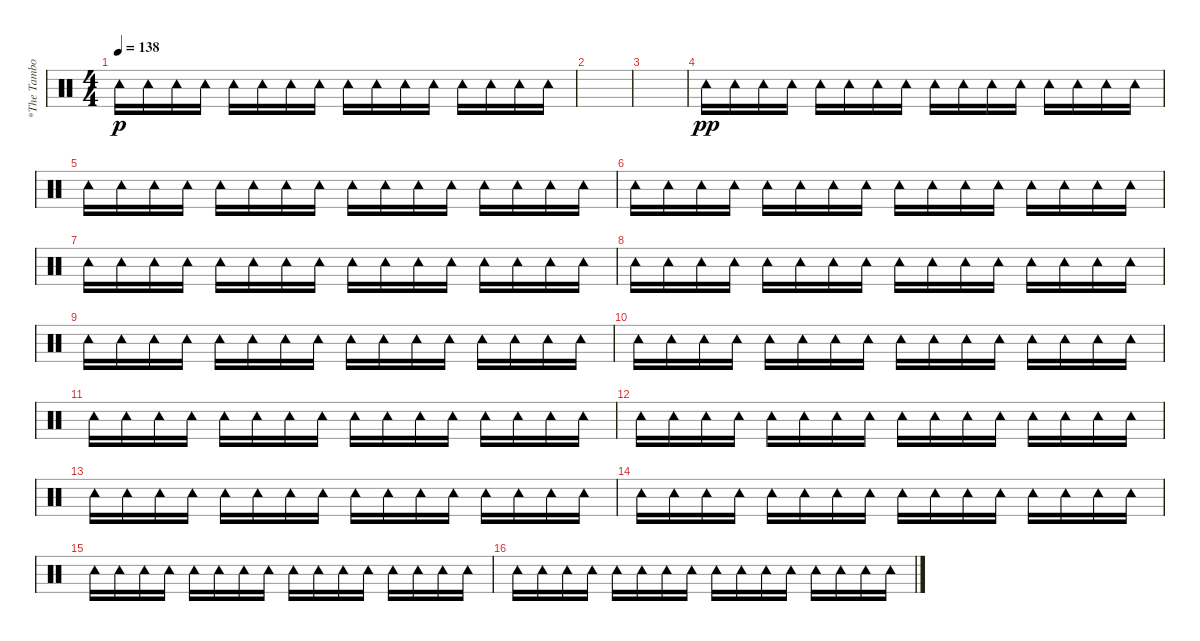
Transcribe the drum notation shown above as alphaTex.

\track ("*The Tambourine" "*The Tambo") {instrument percussion}
\staff {score}
\articulation defaults
\ts (4 4)
\tempo 138
\clef neutral
\ks c "Tambourine (hit)".16{dy p} "Tambourine (hit)".16 "Tambourine (hit)".16 "Tambourine (hit)".16 "Tambourine (hit)".16 "Tambourine (hit)".16 "Tambourine (hit)".16 "Tambourine (hit)".16 "Tambourine (hit)".16 "Tambourine (hit)".16 "Tambourine (hit)".16 "Tambourine (hit)".16 "Tambourine (hit)".16 "Tambourine (hit)".16 "Tambourine (hit)".16 "Tambourine (hit)".16
|
|
|
"Tambourine (hit)".16{dy pp} "Tambourine (hit)".16 "Tambourine (hit)".16 "Tambourine (hit)".16 "Tambourine (hit)".16 "Tambourine (hit)".16 "Tambourine (hit)".16 "Tambourine (hit)".16 "Tambourine (hit)".16 "Tambourine (hit)".16 "Tambourine (hit)".16 "Tambourine (hit)".16 "Tambourine (hit)".16 "Tambourine (hit)".16 "Tambourine (hit)".16 "Tambourine (hit)".16 |
"Tambourine (hit)".16 "Tambourine (hit)".16 "Tambourine (hit)".16 "Tambourine (hit)".16 "Tambourine (hit)".16 "Tambourine (hit)".16 "Tambourine (hit)".16 "Tambourine (hit)".16 "Tambourine (hit)".16 "Tambourine (hit)".16 "Tambourine (hit)".16 "Tambourine (hit)".16 "Tambourine (hit)".16 "Tambourine (hit)".16 "Tambourine (hit)".16 "Tambourine (hit)".16 |
"Tambourine (hit)".16 "Tambourine (hit)".16 "Tambourine (hit)".16 "Tambourine (hit)".16 "Tambourine (hit)".16 "Tambourine (hit)".16 "Tambourine (hit)".16 "Tambourine (hit)".16 "Tambourine (hit)".16 "Tambourine (hit)".16 "Tambourine (hit)".16 "Tambourine (hit)".16 "Tambourine (hit)".16 "Tambourine (hit)".16 "Tambourine (hit)".16 "Tambourine (hit)".16 |
"Tambourine (hit)".16 "Tambourine (hit)".16 "Tambourine (hit)".16 "Tambourine (hit)".16 "Tambourine (hit)".16 "Tambourine (hit)".16 "Tambourine (hit)".16 "Tambourine (hit)".16 "Tambourine (hit)".16 "Tambourine (hit)".16 "Tambourine (hit)".16 "Tambourine (hit)".16 "Tambourine (hit)".16 "Tambourine (hit)".16 "Tambourine (hit)".16 "Tambourine (hit)".16 |
"Tambourine (hit)".16 "Tambourine (hit)".16 "Tambourine (hit)".16 "Tambourine (hit)".16 "Tambourine (hit)".16 "Tambourine (hit)".16 "Tambourine (hit)".16 "Tambourine (hit)".16 "Tambourine (hit)".16 "Tambourine (hit)".16 "Tambourine (hit)".16 "Tambourine (hit)".16 "Tambourine (hit)".16 "Tambourine (hit)".16 "Tambourine (hit)".16 "Tambourine (hit)".16 |
"Tambourine (hit)".16 "Tambourine (hit)".16 "Tambourine (hit)".16 "Tambourine (hit)".16 "Tambourine (hit)".16 "Tambourine (hit)".16 "Tambourine (hit)".16 "Tambourine (hit)".16 "Tambourine (hit)".16 "Tambourine (hit)".16 "Tambourine (hit)".16 "Tambourine (hit)".16 "Tambourine (hit)".16 "Tambourine (hit)".16 "Tambourine (hit)".16 "Tambourine (hit)".16 |
"Tambourine (hit)".16 "Tambourine (hit)".16 "Tambourine (hit)".16 "Tambourine (hit)".16 "Tambourine (hit)".16 "Tambourine (hit)".16 "Tambourine (hit)".16 "Tambourine (hit)".16 "Tambourine (hit)".16 "Tambourine (hit)".16 "Tambourine (hit)".16 "Tambourine (hit)".16 "Tambourine (hit)".16 "Tambourine (hit)".16 "Tambourine (hit)".16 "Tambourine (hit)".16 |
"Tambourine (hit)".16 "Tambourine (hit)".16 "Tambourine (hit)".16 "Tambourine (hit)".16 "Tambourine (hit)".16 "Tambourine (hit)".16 "Tambourine (hit)".16 "Tambourine (hit)".16 "Tambourine (hit)".16 "Tambourine (hit)".16 "Tambourine (hit)".16 "Tambourine (hit)".16 "Tambourine (hit)".16 "Tambourine (hit)".16 "Tambourine (hit)".16 "Tambourine (hit)".16 |
"Tambourine (hit)".16 "Tambourine (hit)".16 "Tambourine (hit)".16 "Tambourine (hit)".16 "Tambourine (hit)".16 "Tambourine (hit)".16 "Tambourine (hit)".16 "Tambourine (hit)".16 "Tambourine (hit)".16 "Tambourine (hit)".16 "Tambourine (hit)".16 "Tambourine (hit)".16 "Tambourine (hit)".16 "Tambourine (hit)".16 "Tambourine (hit)".16 "Tambourine (hit)".16 |
"Tambourine (hit)".16 "Tambourine (hit)".16 "Tambourine (hit)".16 "Tambourine (hit)".16 "Tambourine (hit)".16 "Tambourine (hit)".16 "Tambourine (hit)".16 "Tambourine (hit)".16 "Tambourine (hit)".16 "Tambourine (hit)".16 "Tambourine (hit)".16 "Tambourine (hit)".16 "Tambourine (hit)".16 "Tambourine (hit)".16 "Tambourine (hit)".16 "Tambourine (hit)".16 |
"Tambourine (hit)".16 "Tambourine (hit)".16 "Tambourine (hit)".16 "Tambourine (hit)".16 "Tambourine (hit)".16 "Tambourine (hit)".16 "Tambourine (hit)".16 "Tambourine (hit)".16 "Tambourine (hit)".16 "Tambourine (hit)".16 "Tambourine (hit)".16 "Tambourine (hit)".16 "Tambourine (hit)".16 "Tambourine (hit)".16 "Tambourine (hit)".16 "Tambourine (hit)".16 |
"Tambourine (hit)".16 "Tambourine (hit)".16 "Tambourine (hit)".16 "Tambourine (hit)".16 "Tambourine (hit)".16 "Tambourine (hit)".16 "Tambourine (hit)".16 "Tambourine (hit)".16 "Tambourine (hit)".16 "Tambourine (hit)".16 "Tambourine (hit)".16 "Tambourine (hit)".16 "Tambourine (hit)".16 "Tambourine (hit)".16 "Tambourine (hit)".16 "Tambourine (hit)".16 |
"Tambourine (hit)".16 "Tambourine (hit)".16 "Tambourine (hit)".16 "Tambourine (hit)".16 "Tambourine (hit)".16 "Tambourine (hit)".16 "Tambourine (hit)".16 "Tambourine (hit)".16 "Tambourine (hit)".16 "Tambourine (hit)".16 "Tambourine (hit)".16 "Tambourine (hit)".16 "Tambourine (hit)".16 "Tambourine (hit)".16 "Tambourine (hit)".16 "Tambourine (hit)".16
